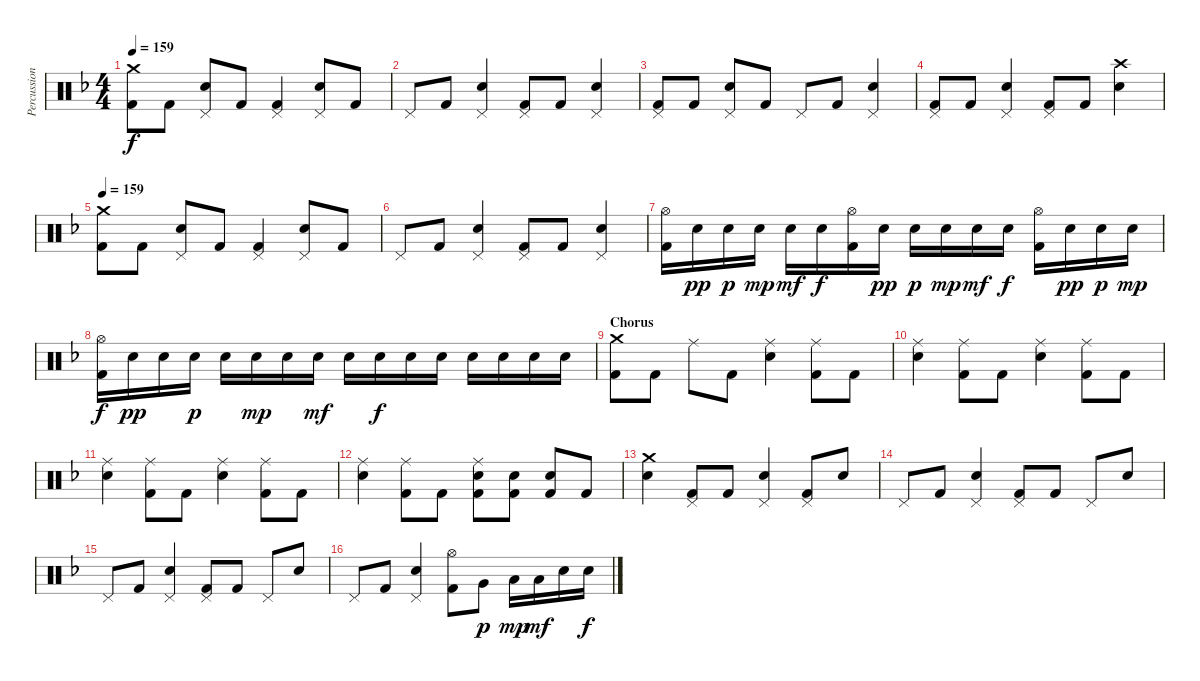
\track ("Percussion" "Percussion") {instrument percussion}
\staff {score}
\articulation defaults
\ts (4 4)
\tempo 159
\clef neutral
\ks f
("Crash medium (hit)" "Kick (hit) 2").8{dy f} "Kick (hit) 2".8 ("Pedal Hi-Hat (hit)" "Electric Snare (hit)").8 "Kick (hit) 2".8 ("Pedal Hi-Hat (hit)" "Kick (hit) 2").4 ("Pedal Hi-Hat (hit)" "Electric Snare (hit)").8 "Kick (hit) 2".8 |
"Pedal Hi-Hat (hit)".8 "Kick (hit) 2".8 ("Pedal Hi-Hat (hit)" "Electric Snare (hit)").4 ("Pedal Hi-Hat (hit)" "Kick (hit) 2").8 "Kick (hit) 2".8 ("Pedal Hi-Hat (hit)" "Electric Snare (hit)").4 |
("Pedal Hi-Hat (hit)" "Kick (hit) 2").8 "Kick (hit) 2".8 ("Pedal Hi-Hat (hit)" "Electric Snare (hit)").8 "Kick (hit) 2".8 "Pedal Hi-Hat (hit)".8 "Kick (hit) 2".8 ("Pedal Hi-Hat (hit)" "Electric Snare (hit)").4 |
("Pedal Hi-Hat (hit)" "Kick (hit) 2").8 "Kick (hit) 2".8 ("Pedal Hi-Hat (hit)" "Electric Snare (hit)").4 ("Pedal Hi-Hat (hit)" "Kick (hit) 2").8 "Kick (hit) 2".8 ("Crash high (hit)" "Electric Snare (hit)").4 |
\tempo 159
("Crash medium (hit)" "Kick (hit) 2").8 "Kick (hit) 2".8 ("Pedal Hi-Hat (hit)" "Electric Snare (hit)").8 "Kick (hit) 2".8 ("Pedal Hi-Hat (hit)" "Kick (hit) 2").4 ("Pedal Hi-Hat (hit)" "Electric Snare (hit)").8 "Kick (hit) 2".8 |
"Pedal Hi-Hat (hit)".8 "Kick (hit) 2".8 ("Pedal Hi-Hat (hit)" "Electric Snare (hit)").4 ("Pedal Hi-Hat (hit)" "Kick (hit) 2").8 "Kick (hit) 2".8 ("Pedal Hi-Hat (hit)" "Electric Snare (hit)").4 |
("Hi-Hat (open)" "Kick (hit) 2").16 "Electric Snare (hit)".16{dy pp} "Electric Snare (hit)".16{dy p} "Electric Snare (hit)".16{dy mp} "Electric Snare (hit)".16{dy mf} "Electric Snare (hit)".16{dy f} ("Hi-Hat (open)" "Kick (hit) 2").16 "Electric Snare (hit)".16{dy pp} "Electric Snare (hit)".16{dy p} "Electric Snare (hit)".16{dy mp} "Electric Snare (hit)".16{dy mf} "Electric Snare (hit)".16{dy f} ("Hi-Hat (open)" "Kick (hit) 2").16 "Electric Snare (hit)".16{dy pp} "Electric Snare (hit)".16{dy p} "Electric Snare (hit)".16{dy mp} |
("Hi-Hat (open)" "Kick (hit) 2").16{dy f} "Electric Snare (hit)".16{dy pp} "Electric Snare (hit)".16 "Electric Snare (hit)".16{dy p} "Electric Snare (hit)".16 "Electric Snare (hit)".16{dy mp} "Electric Snare (hit)".16 "Electric Snare (hit)".16{dy mf} "Electric Snare (hit)".16 "Electric Snare (hit)".16{dy f} "Electric Snare (hit)".16 "Electric Snare (hit)".16 "Electric Snare (hit)".16 "Electric Snare (hit)".16 "Electric Snare (hit)".16 "Electric Snare (hit)".16 |
\section ("" "Chorus")
("Crash medium (hit)" "Kick (hit) 2").8 "Kick (hit) 2".8 "Ride (middle)".8 "Kick (hit) 2".8 ("Ride (middle)" "Electric Snare (hit)").4 ("Ride (middle)" "Kick (hit) 2").8 "Kick (hit) 2".8 |
("Ride (middle)" "Electric Snare (hit)").4 ("Ride (middle)" "Kick (hit) 2").8 "Kick (hit) 2".8 ("Ride (middle)" "Electric Snare (hit)").4 ("Ride (middle)" "Kick (hit) 2").8 "Kick (hit) 2".8 |
("Ride (middle)" "Electric Snare (hit)").4 ("Ride (middle)" "Kick (hit) 2").8 "Kick (hit) 2".8 ("Ride (middle)" "Electric Snare (hit)").4 ("Ride (middle)" "Kick (hit) 2").8 "Kick (hit) 2".8 |
("Ride (middle)" "Electric Snare (hit)").4 ("Ride (middle)" "Kick (hit) 2").8 "Kick (hit) 2".8 ("Ride (middle)" "Electric Snare (hit)" "Kick (hit) 2").8 ("Electric Snare (hit)" "Kick (hit) 2").8 ("Electric Snare (hit)" "Kick (hit) 2").8 "Kick (hit) 2".8 |
("Crash medium (hit)" "Electric Snare (hit)").4 ("Pedal Hi-Hat (hit)" "Kick (hit) 2").8 "Kick (hit) 2".8 ("Pedal Hi-Hat (hit)" "Electric Snare (hit)").4 ("Pedal Hi-Hat (hit)" "Kick (hit) 2").8 "Electric Snare (hit)".8 |
"Pedal Hi-Hat (hit)".8 "Kick (hit) 2".8 ("Pedal Hi-Hat (hit)" "Electric Snare (hit)").4 ("Pedal Hi-Hat (hit)" "Kick (hit) 2").8 "Kick (hit) 2".8 "Pedal Hi-Hat (hit)".8 "Electric Snare (hit)".8 |
"Pedal Hi-Hat (hit)".8 "Kick (hit) 2".8 ("Pedal Hi-Hat (hit)" "Electric Snare (hit)").4 ("Pedal Hi-Hat (hit)" "Kick (hit) 2").8 "Kick (hit) 2".8 "Pedal Hi-Hat (hit)".8 "Electric Snare (hit)".8 |
"Pedal Hi-Hat (hit)".8 "Kick (hit) 2".8 ("Pedal Hi-Hat (hit)" "Electric Snare (hit)").4 ("Hi-Hat (open)" "Kick (hit) 2").8 "Very Low Tom (hit)".8{dy p} "Low Tom (hit)".16{dy mp} "Low Tom (hit)".16{dy mf} "Electric Snare (hit)".16 "Electric Snare (hit)".16{dy f}
